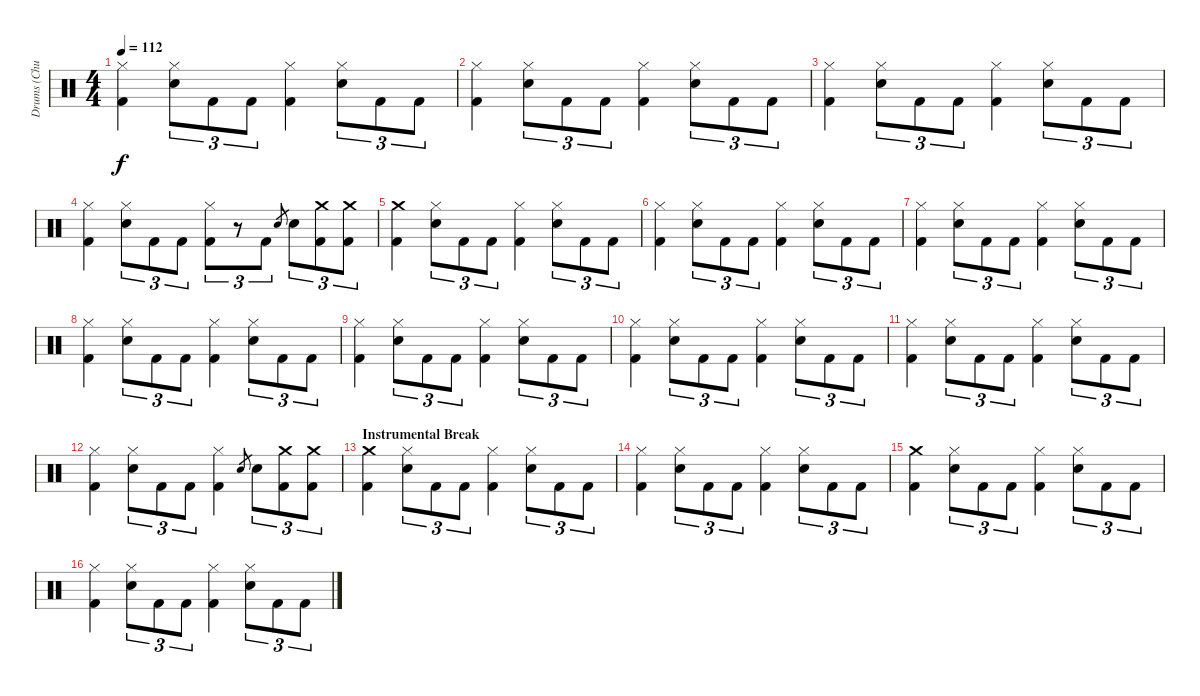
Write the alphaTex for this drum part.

\track ("Drums (Chuck Behler)" "Drums (Chu") {instrument percussion}
\staff {score}
\articulation defaults
\ts (4 4)
\tempo 112
\clef neutral
\ks c
("Hi-Hat (closed)" "Kick (hit) 2").4{dy f} ("Hi-Hat (closed)" "Snare (hit) 2").8{tu (3 2)} "Kick (hit) 2".8{tu (3 2)} "Kick (hit) 2".8{tu (3 2)} ("Hi-Hat (closed)" "Kick (hit) 2").4 ("Hi-Hat (closed)" "Snare (hit) 2").8{tu (3 2)} "Kick (hit) 2".8{tu (3 2)} "Kick (hit) 2".8{tu (3 2)} |
("Hi-Hat (closed)" "Kick (hit) 2").4 ("Hi-Hat (closed)" "Snare (hit) 2").8{tu (3 2)} "Kick (hit) 2".8{tu (3 2)} "Kick (hit) 2".8{tu (3 2)} ("Hi-Hat (closed)" "Kick (hit) 2").4 ("Hi-Hat (closed)" "Snare (hit) 2").8{tu (3 2)} "Kick (hit) 2".8{tu (3 2)} "Kick (hit) 2".8{tu (3 2)} |
("Hi-Hat (closed)" "Kick (hit) 2").4 ("Hi-Hat (closed)" "Snare (hit) 2").8{tu (3 2)} "Kick (hit) 2".8{tu (3 2)} "Kick (hit) 2".8{tu (3 2)} ("Hi-Hat (closed)" "Kick (hit) 2").4 ("Hi-Hat (closed)" "Snare (hit) 2").8{tu (3 2)} "Kick (hit) 2".8{tu (3 2)} "Kick (hit) 2".8{tu (3 2)} |
("Hi-Hat (closed)" "Kick (hit) 2").4 ("Hi-Hat (closed)" "Snare (hit) 2").8{tu (3 2)} "Kick (hit) 2".8{tu (3 2)} "Kick (hit) 2".8{tu (3 2)} ("Hi-Hat (closed)" "Kick (hit) 2").8{tu (3 2)} r.8{tu (3 2)} "Kick (hit) 2".8{tu (3 2)} "Snare (hit) 2".8{gr} "Snare (hit) 2".8{tu (3 2)} ("Crash medium (hit)" "Kick (hit) 2").8{tu (3 2)} ("Crash medium (hit)" "Kick (hit) 2").8{tu (3 2)} |
("Crash medium (hit)" "Kick (hit) 2").4 ("Hi-Hat (closed)" "Snare (hit) 2").8{tu (3 2)} "Kick (hit) 2".8{tu (3 2)} "Kick (hit) 2".8{tu (3 2)} ("Hi-Hat (closed)" "Kick (hit) 2").4 ("Hi-Hat (closed)" "Snare (hit) 2").8{tu (3 2)} "Kick (hit) 2".8{tu (3 2)} "Kick (hit) 2".8{tu (3 2)} |
("Hi-Hat (closed)" "Kick (hit) 2").4 ("Hi-Hat (closed)" "Snare (hit) 2").8{tu (3 2)} "Kick (hit) 2".8{tu (3 2)} "Kick (hit) 2".8{tu (3 2)} ("Hi-Hat (closed)" "Kick (hit) 2").4 ("Hi-Hat (closed)" "Snare (hit) 2").8{tu (3 2)} "Kick (hit) 2".8{tu (3 2)} "Kick (hit) 2".8{tu (3 2)} |
("Hi-Hat (closed)" "Kick (hit) 2").4 ("Hi-Hat (closed)" "Snare (hit) 2").8{tu (3 2)} "Kick (hit) 2".8{tu (3 2)} "Kick (hit) 2".8{tu (3 2)} ("Hi-Hat (closed)" "Kick (hit) 2").4 ("Hi-Hat (closed)" "Snare (hit) 2").8{tu (3 2)} "Kick (hit) 2".8{tu (3 2)} "Kick (hit) 2".8{tu (3 2)} |
("Hi-Hat (closed)" "Kick (hit) 2").4 ("Hi-Hat (closed)" "Snare (hit) 2").8{tu (3 2)} "Kick (hit) 2".8{tu (3 2)} "Kick (hit) 2".8{tu (3 2)} ("Hi-Hat (closed)" "Kick (hit) 2").4 ("Hi-Hat (closed)" "Snare (hit) 2").8{tu (3 2)} "Kick (hit) 2".8{tu (3 2)} "Kick (hit) 2".8{tu (3 2)} |
("Hi-Hat (closed)" "Kick (hit) 2").4 ("Hi-Hat (closed)" "Snare (hit) 2").8{tu (3 2)} "Kick (hit) 2".8{tu (3 2)} "Kick (hit) 2".8{tu (3 2)} ("Hi-Hat (closed)" "Kick (hit) 2").4 ("Hi-Hat (closed)" "Snare (hit) 2").8{tu (3 2)} "Kick (hit) 2".8{tu (3 2)} "Kick (hit) 2".8{tu (3 2)} |
("Hi-Hat (closed)" "Kick (hit) 2").4 ("Hi-Hat (closed)" "Snare (hit) 2").8{tu (3 2)} "Kick (hit) 2".8{tu (3 2)} "Kick (hit) 2".8{tu (3 2)} ("Hi-Hat (closed)" "Kick (hit) 2").4 ("Hi-Hat (closed)" "Snare (hit) 2").8{tu (3 2)} "Kick (hit) 2".8{tu (3 2)} "Kick (hit) 2".8{tu (3 2)} |
("Hi-Hat (closed)" "Kick (hit) 2").4 ("Hi-Hat (closed)" "Snare (hit) 2").8{tu (3 2)} "Kick (hit) 2".8{tu (3 2)} "Kick (hit) 2".8{tu (3 2)} ("Hi-Hat (closed)" "Kick (hit) 2").4 ("Hi-Hat (closed)" "Snare (hit) 2").8{tu (3 2)} "Kick (hit) 2".8{tu (3 2)} "Kick (hit) 2".8{tu (3 2)} |
("Hi-Hat (closed)" "Kick (hit) 2").4 ("Hi-Hat (closed)" "Snare (hit) 2").8{tu (3 2)} "Kick (hit) 2".8{tu (3 2)} "Kick (hit) 2".8{tu (3 2)} ("Hi-Hat (closed)" "Kick (hit) 2").4 "Snare (hit) 2".8{gr} "Snare (hit) 2".8{tu (3 2)} ("Crash medium (hit)" "Kick (hit) 2").8{tu (3 2)} ("Crash medium (hit)" "Kick (hit) 2").8{tu (3 2)} |
\section ("" "Instrumental Break")
("Crash medium (hit)" "Kick (hit) 2").4 ("Hi-Hat (closed)" "Snare (hit) 2").8{tu (3 2)} "Kick (hit) 2".8{tu (3 2)} "Kick (hit) 2".8{tu (3 2)} ("Hi-Hat (closed)" "Kick (hit) 2").4 ("Hi-Hat (closed)" "Snare (hit) 2").8{tu (3 2)} "Kick (hit) 2".8{tu (3 2)} "Kick (hit) 2".8{tu (3 2)} |
("Hi-Hat (closed)" "Kick (hit) 2").4 ("Hi-Hat (closed)" "Snare (hit) 2").8{tu (3 2)} "Kick (hit) 2".8{tu (3 2)} "Kick (hit) 2".8{tu (3 2)} ("Hi-Hat (closed)" "Kick (hit) 2").4 ("Hi-Hat (closed)" "Snare (hit) 2").8{tu (3 2)} "Kick (hit) 2".8{tu (3 2)} "Kick (hit) 2".8{tu (3 2)} |
("Crash medium (hit)" "Kick (hit) 2").4 ("Hi-Hat (closed)" "Snare (hit) 2").8{tu (3 2)} "Kick (hit) 2".8{tu (3 2)} "Kick (hit) 2".8{tu (3 2)} ("Hi-Hat (closed)" "Kick (hit) 2").4 ("Hi-Hat (closed)" "Snare (hit) 2").8{tu (3 2)} "Kick (hit) 2".8{tu (3 2)} "Kick (hit) 2".8{tu (3 2)} |
("Hi-Hat (closed)" "Kick (hit) 2").4 ("Hi-Hat (closed)" "Snare (hit) 2").8{tu (3 2)} "Kick (hit) 2".8{tu (3 2)} "Kick (hit) 2".8{tu (3 2)} ("Hi-Hat (closed)" "Kick (hit) 2").4 ("Hi-Hat (closed)" "Snare (hit) 2").8{tu (3 2)} "Kick (hit) 2".8{tu (3 2)} "Kick (hit) 2".8{tu (3 2)}
